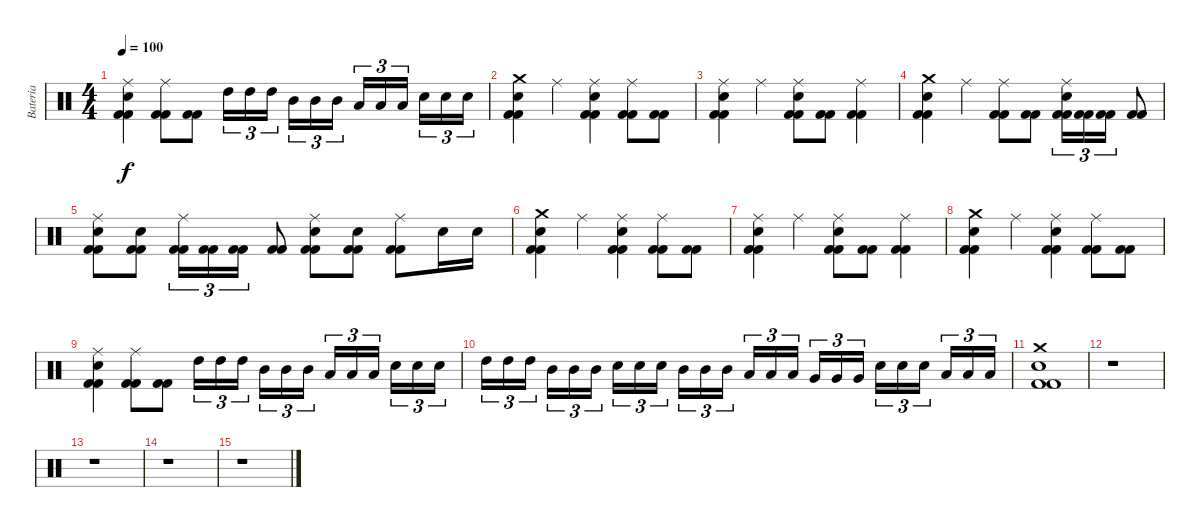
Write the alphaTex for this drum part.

\track ("Bateria" "Bateria") {instrument percussion}
\staff {score}
\articulation defaults
\ts (4 4)
\tempo 100
\clef neutral
\ks c
("Kick (hit) 2" "Kick (hit) 2" "Snare (hit) 2" "Ride (middle)").4{dy f} ("Kick (hit) 2" "Kick (hit) 2" "Ride (middle)").8 ("Kick (hit) 2" "Kick (hit) 2").8 "High Tom (hit)".16{tu (3 2)} "High Tom (hit)".16{tu (3 2)} "High Tom (hit)".16{tu (3 2)} "Mid Tom (hit)".16{tu (3 2)} "Mid Tom (hit)".16{tu (3 2)} "Mid Tom (hit)".16{tu (3 2)} "Low Tom (hit)".16{tu (3 2)} "Low Tom (hit)".16{tu (3 2)} "Low Tom (hit)".16{tu (3 2)} "Snare (hit) 2".16{tu (3 2)} "Snare (hit) 2".16{tu (3 2)} "Snare (hit) 2".16{tu (3 2)} |
("Kick (hit) 2" "Kick (hit) 2" "Snare (hit) 2" "Crash medium (hit)").4 "Ride (middle)".4 ("Kick (hit) 2" "Kick (hit) 2" "Snare (hit) 2" "Ride (middle)").4 ("Kick (hit) 2" "Kick (hit) 2" "Ride (middle)").8 ("Kick (hit) 2" "Kick (hit) 2").8 |
("Kick (hit) 2" "Kick (hit) 2" "Snare (hit) 2" "Ride (middle)").4 "Ride (middle)".4 ("Kick (hit) 2" "Kick (hit) 2" "Snare (hit) 2" "Ride (middle)").8 ("Kick (hit) 2" "Kick (hit) 2").8 ("Kick (hit) 2" "Kick (hit) 2" "Ride (middle)").4 |
("Kick (hit) 2" "Kick (hit) 2" "Snare (hit) 2" "Crash medium (hit)").4 "Ride (middle)".4 ("Kick (hit) 2" "Kick (hit) 2" "Ride (middle)").8 ("Kick (hit) 2" "Kick (hit) 2").8 ("Kick (hit) 2" "Kick (hit) 2" "Snare (hit) 2" "Ride (middle)").16{tu (3 2)} ("Kick (hit) 2" "Kick (hit) 2").16{tu (3 2)} ("Kick (hit) 2" "Kick (hit) 2").16{tu (3 2)} ("Kick (hit) 2" "Kick (hit) 2").8 |
("Kick (hit) 2" "Kick (hit) 2" "Snare (hit) 2" "Ride (middle)").8 ("Kick (hit) 2" "Kick (hit) 2" "Snare (hit) 2").8 ("Kick (hit) 2" "Kick (hit) 2" "Ride (middle)").16{tu (3 2)} ("Kick (hit) 2" "Kick (hit) 2").16{tu (3 2)} ("Kick (hit) 2" "Kick (hit) 2").16{tu (3 2)} ("Kick (hit) 2" "Kick (hit) 2").8 ("Kick (hit) 2" "Kick (hit) 2" "Snare (hit) 2" "Ride (middle)").8 ("Kick (hit) 2" "Kick (hit) 2" "Snare (hit) 2").8 ("Kick (hit) 2" "Kick (hit) 2" "Ride (middle)").8 "Snare (hit) 2".16 "Snare (hit) 2".16 |
("Kick (hit) 2" "Kick (hit) 2" "Snare (hit) 2" "Crash medium (hit)").4 "Ride (middle)".4 ("Kick (hit) 2" "Kick (hit) 2" "Snare (hit) 2" "Ride (middle)").4 ("Kick (hit) 2" "Kick (hit) 2" "Ride (middle)").8 ("Kick (hit) 2" "Kick (hit) 2").8 |
("Kick (hit) 2" "Kick (hit) 2" "Snare (hit) 2" "Ride (middle)").4 "Ride (middle)".4 ("Kick (hit) 2" "Kick (hit) 2" "Snare (hit) 2" "Ride (middle)").8 ("Kick (hit) 2" "Kick (hit) 2").8 ("Kick (hit) 2" "Kick (hit) 2" "Ride (middle)").4 |
("Kick (hit) 2" "Kick (hit) 2" "Snare (hit) 2" "Crash medium (hit)").4 "Ride (middle)".4 ("Kick (hit) 2" "Kick (hit) 2" "Snare (hit) 2" "Ride (middle)").4 ("Kick (hit) 2" "Kick (hit) 2" "Ride (middle)").8 ("Kick (hit) 2" "Kick (hit) 2").8 |
("Kick (hit) 2" "Kick (hit) 2" "Snare (hit) 2" "Ride (middle)").4 ("Kick (hit) 2" "Kick (hit) 2" "Ride (middle)").8 ("Kick (hit) 2" "Kick (hit) 2").8 "High Tom (hit)".16{tu (3 2)} "High Tom (hit)".16{tu (3 2)} "High Tom (hit)".16{tu (3 2)} "Mid Tom (hit)".16{tu (3 2)} "Mid Tom (hit)".16{tu (3 2)} "Mid Tom (hit)".16{tu (3 2)} "Low Tom (hit)".16{tu (3 2)} "Low Tom (hit)".16{tu (3 2)} "Low Tom (hit)".16{tu (3 2)} "Snare (hit) 2".16{tu (3 2)} "Snare (hit) 2".16{tu (3 2)} "Snare (hit) 2".16{tu (3 2)} |
"High Tom (hit)".16{tu (3 2)} "High Tom (hit)".16{tu (3 2)} "High Tom (hit)".16{tu (3 2)} "Mid Tom (hit)".16{tu (3 2)} "Mid Tom (hit)".16{tu (3 2)} "Mid Tom (hit)".16{tu (3 2)} "Snare (hit) 2".16{tu (3 2)} "Snare (hit) 2".16{tu (3 2)} "Snare (hit) 2".16{tu (3 2)} "Mid Tom (hit)".16{tu (3 2)} "Mid Tom (hit)".16{tu (3 2)} "Mid Tom (hit)".16{tu (3 2)} "Low Tom (hit)".16{tu (3 2)} "Low Tom (hit)".16{tu (3 2)} "Low Tom (hit)".16{tu (3 2)} "Very Low Tom (hit)".16{tu (3 2)} "Very Low Tom (hit)".16{tu (3 2)} "Very Low Tom (hit)".16{tu (3 2)} "Snare (hit) 2".16{tu (3 2)} "Snare (hit) 2".16{tu (3 2)} "Snare (hit) 2".16{tu (3 2)} "Low Floor Tom (hit)".16{tu (3 2)} "Low Floor Tom (hit)".16{tu (3 2)} "Low Floor Tom (hit)".16{tu (3 2)} |
("Kick (hit) 2" "Kick (hit) 2" "Electric Snare (hit)" "Crash medium (hit)").1 |
r.1 |
r.1 |
r.1 |
r.1
